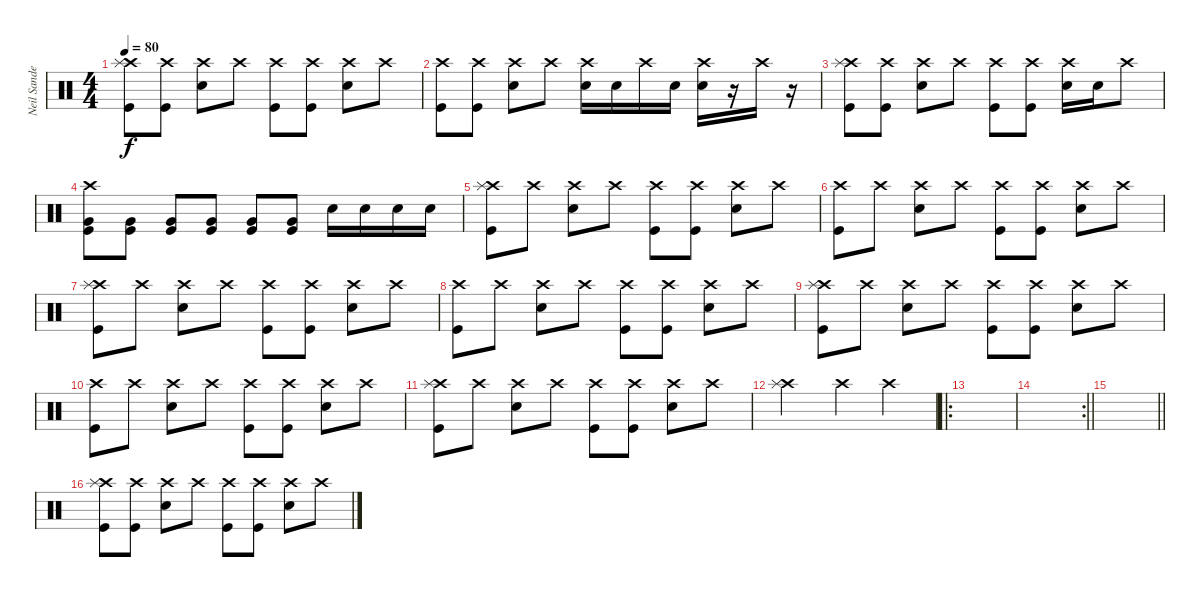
\track ("Neil Sanderson" "Neil Sande") {instrument percussion}
\staff {score}
\articulation defaults
\ts (4 4)
\tempo 80
\clef neutral
\ks c
("Crash high (hit)" "Splash (hit)" "Kick (hit)").8{dy f} ("Crash high (hit)" "Kick (hit)").8 ("Crash high (hit)" "Snare (hit) 2").8 "Crash high (hit)".8 ("Crash high (hit)" "Kick (hit)").8 ("Crash high (hit)" "Kick (hit)").8 ("Crash high (hit)" "Snare (hit) 2").8 "Crash high (hit)".8 |
("Crash high (hit)" "Kick (hit)").8 ("Crash high (hit)" "Kick (hit)").8 ("Crash high (hit)" "Snare (hit) 2").8 "Crash high (hit)".8 ("Crash high (hit)" "Snare (hit) 2").16 "Snare (hit) 2".16 "Crash high (hit)".16 "Snare (hit) 2".16 ("Crash high (hit)" "Snare (hit) 2").16 r.16 "Crash high (hit)".16 r.16 |
("Crash high (hit)" "Splash (hit)" "Kick (hit)").8 ("Crash high (hit)" "Kick (hit)").8 ("Crash high (hit)" "Snare (hit) 2").8 "Crash high (hit)".8 ("Crash high (hit)" "Kick (hit)").8 ("Crash high (hit)" "Kick (hit)").8 ("Crash high (hit)" "Snare (hit) 2").16 "Snare (hit) 2".16 "Crash high (hit)".8 |
("Crash high (hit)" "Very Low Tom (hit)" "Kick (hit)").8 ("Very Low Tom (hit)" "Kick (hit)").8 ("Very Low Tom (hit)" "Kick (hit)").8 ("Very Low Tom (hit)" "Kick (hit)").8 ("Very Low Tom (hit)" "Kick (hit)").8 ("Very Low Tom (hit)" "Kick (hit)").8 "Snare (hit) 2".16 "Snare (hit) 2".16 "Snare (hit) 2".16 "Snare (hit) 2".16 |
("Crash high (hit)" "Splash (hit)" "Kick (hit)").8 "Crash high (hit)".8 ("Crash high (hit)" "Snare (hit) 2").8 "Crash high (hit)".8 ("Crash high (hit)" "Kick (hit)").8 ("Crash high (hit)" "Kick (hit)").8 ("Crash high (hit)" "Snare (hit) 2").8 "Crash high (hit)".8 |
("Crash high (hit)" "Kick (hit)").8 "Crash high (hit)".8 ("Crash high (hit)" "Snare (hit) 2").8 "Crash high (hit)".8 ("Crash high (hit)" "Kick (hit)").8 ("Crash high (hit)" "Kick (hit)").8 ("Crash high (hit)" "Snare (hit) 2").8 "Crash high (hit)".8 |
("Crash high (hit)" "Splash (hit)" "Kick (hit)").8 "Crash high (hit)".8 ("Crash high (hit)" "Snare (hit) 2").8 "Crash high (hit)".8 ("Crash high (hit)" "Kick (hit)").8 ("Crash high (hit)" "Kick (hit)").8 ("Crash high (hit)" "Snare (hit) 2").8 "Crash high (hit)".8 |
("Crash high (hit)" "Kick (hit)").8 "Crash high (hit)".8 ("Crash high (hit)" "Snare (hit) 2").8 "Crash high (hit)".8 ("Crash high (hit)" "Kick (hit)").8 ("Crash high (hit)" "Kick (hit)").8 ("Crash high (hit)" "Snare (hit) 2").8 "Crash high (hit)".8 |
("Crash high (hit)" "Splash (hit)" "Kick (hit)").8 "Crash high (hit)".8 ("Crash high (hit)" "Snare (hit) 2").8 "Crash high (hit)".8 ("Crash high (hit)" "Kick (hit)").8 ("Crash high (hit)" "Kick (hit)").8 ("Crash high (hit)" "Snare (hit) 2").8 "Crash high (hit)".8 |
("Crash high (hit)" "Kick (hit)").8 "Crash high (hit)".8 ("Crash high (hit)" "Snare (hit) 2").8 "Crash high (hit)".8 ("Crash high (hit)" "Kick (hit)").8 ("Crash high (hit)" "Kick (hit)").8 ("Crash high (hit)" "Snare (hit) 2").8 "Crash high (hit)".8 |
("Crash high (hit)" "Splash (hit)" "Kick (hit)").8 "Crash high (hit)".8 ("Crash high (hit)" "Snare (hit) 2").8 "Crash high (hit)".8 ("Crash high (hit)" "Kick (hit)").8 ("Crash high (hit)" "Kick (hit)").8 ("Crash high (hit)" "Snare (hit) 2").8 "Crash high (hit)".8 |
("Crash high (hit)" "Splash (hit)").2 "Crash high (hit)".4 "Crash high (hit)".4 |
\ro
|
\rc 2
\barLineRight lightlight
|
\barLineRight lightlight
|
("Crash high (hit)" "Splash (hit)" "Kick (hit)").8 ("Crash high (hit)" "Kick (hit)").8 ("Crash high (hit)" "Snare (hit) 2").8 "Crash high (hit)".8 ("Crash high (hit)" "Kick (hit)").8 ("Crash high (hit)" "Kick (hit)").8 ("Crash high (hit)" "Snare (hit) 2").8 "Crash high (hit)".8
